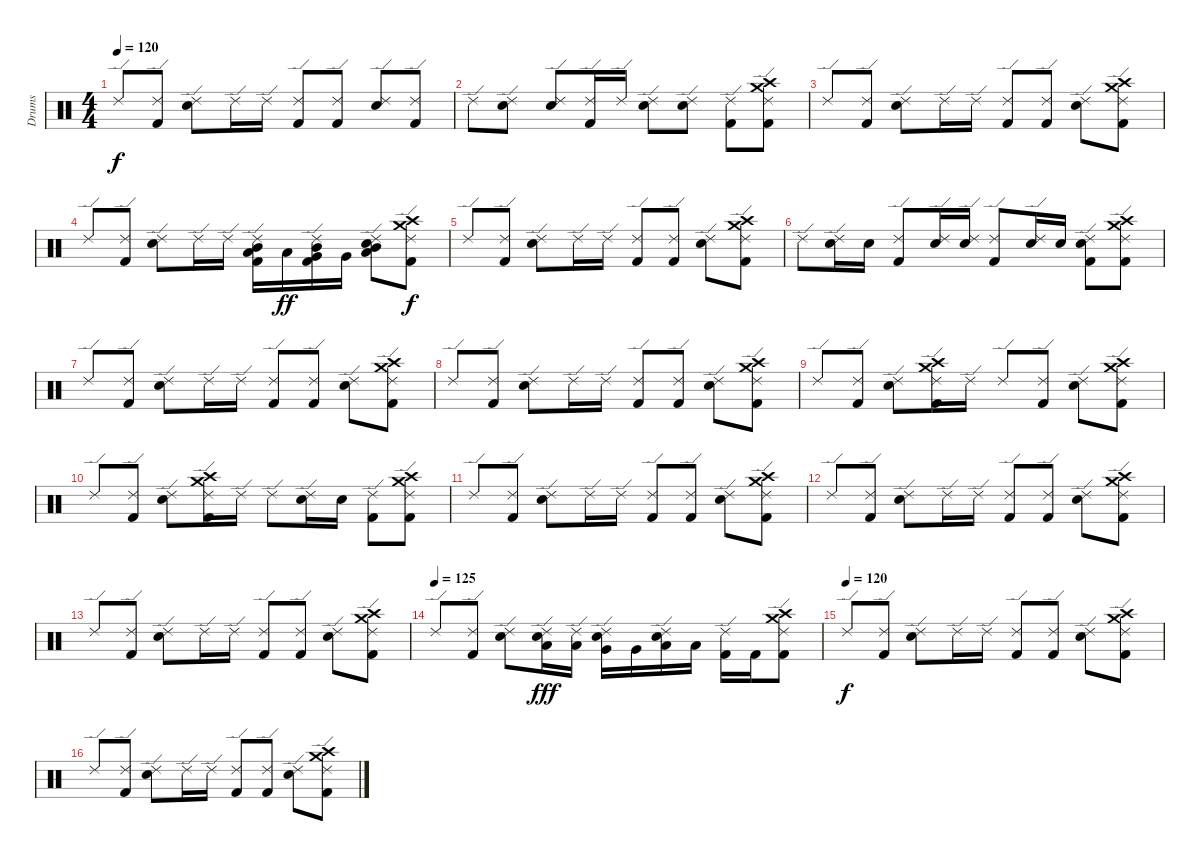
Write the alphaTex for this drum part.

\track ("Drums" "Drums") {instrument percussion}
\staff {score}
\articulation defaults
\ts (4 4)
\tempo 120
\clef neutral
\ks c "Ride (edge) 2".8{dy f}
("Kick (hit) 2" "Ride (edge) 2").8 ("Ride (edge) 2" "Snare (hit) 2").8 "Ride (edge) 2".16 "Ride (edge) 2".16 ("Ride (edge) 2" "Kick (hit) 2").8 ("Ride (edge) 2" "Kick (hit) 2").8 ("Ride (edge) 2" "Snare (hit) 2").8 ("Kick (hit) 2" "Ride (edge) 2").8 |
"Ride (edge) 2".8 ("Ride (edge) 2" "Snare (hit) 2").8 ("Ride (edge) 2" "Snare (hit) 2").8 ("Ride (edge) 2" "Kick (hit) 2").16 "Ride (edge) 2".16 ("Ride (edge) 2" "Snare (hit) 2").8 ("Ride (edge) 2" "Snare (hit) 2").8 ("Ride (edge) 2" "Kick (hit) 2").8 ("Kick (hit) 2" "Crash medium (hit)" "Crash high (hit)" "Ride (edge) 2").8 |
"Ride (edge) 2".8 ("Ride (edge) 2" "Kick (hit) 2").8 ("Ride (edge) 2" "Snare (hit) 2").8 "Ride (edge) 2".16 "Ride (edge) 2".16 ("Ride (edge) 2" "Kick (hit) 2").8 ("Ride (edge) 2" "Kick (hit) 2").8 ("Ride (edge) 2" "Snare (hit) 2").8 ("Ride (edge) 2" "Kick (hit) 2" "Crash medium (hit)" "Crash high (hit)").8 |
"Ride (edge) 2".8 ("Ride (edge) 2" "Kick (hit) 2").8 ("Ride (edge) 2" "Snare (hit) 2").8 "Ride (edge) 2".16 "Ride (edge) 2".16 ("Low Tom (hit)" "Ride (edge) 2" "Kick (hit) 2" "Mid Tom (hit)").16 "Low Tom (hit)".16{dy ff} ("Mid Tom (hit)" "Very Low Tom (hit)" "Ride (edge) 2" "Kick (hit) 2").16 "Very Low Tom (hit)".16 ("Mid Tom (hit)" "Low Floor Tom (hit)" "Ride (edge) 2" "Snare (hit) 2").8 ("Ride (edge) 2" "Kick (hit) 2" "Crash high (hit)" "Crash medium (hit)").8{dy f} |
"Ride (edge) 2".8 ("Ride (edge) 2" "Kick (hit) 2").8 ("Ride (edge) 2" "Snare (hit) 2").8 "Ride (edge) 2".16 "Ride (edge) 2".16 ("Ride (edge) 2" "Kick (hit) 2").8 ("Ride (edge) 2" "Kick (hit) 2").8 ("Ride (edge) 2" "Snare (hit) 2").8 ("Crash medium (hit)" "Crash high (hit)" "Ride (edge) 2" "Kick (hit) 2").8 |
"Ride (edge) 2".8 ("Ride (edge) 2" "Snare (hit) 2").16 "Snare (hit) 2".16 ("Ride (edge) 2" "Kick (hit) 2").8 ("Ride (edge) 2" "Snare (hit) 2").16 ("Ride (edge) 2" "Snare (hit) 2").16 ("Ride (edge) 2" "Kick (hit) 2").8 ("Ride (edge) 2" "Snare (hit) 2").16 "Snare (hit) 2".16 ("Ride (edge) 2" "Kick (hit) 2" "Snare (hit) 2").8 ("Kick (hit) 2" "Crash high (hit)" "Crash medium (hit)" "Ride (edge) 2").8 |
"Ride (edge) 2".8 ("Kick (hit) 2" "Ride (edge) 2").8 ("Snare (hit) 2" "Ride (edge) 2").8 "Ride (edge) 2".16 "Ride (edge) 2".16 ("Kick (hit) 2" "Ride (edge) 2").8 ("Kick (hit) 2" "Ride (edge) 2").8 ("Snare (hit) 2" "Ride (edge) 2").8 ("Kick (hit) 2" "Ride (edge) 2" "Crash medium (hit)" "Crash high (hit)").8 |
"Ride (edge) 2".8 ("Kick (hit) 2" "Ride (edge) 2").8 ("Snare (hit) 2" "Ride (edge) 2").8 "Ride (edge) 2".16 "Ride (edge) 2".16 ("Kick (hit) 2" "Ride (edge) 2").8 ("Kick (hit) 2" "Ride (edge) 2").8 ("Snare (hit) 2" "Ride (edge) 2").8 ("Crash medium (hit)" "Crash high (hit)" "Kick (hit) 2" "Ride (edge) 2").8 |
"Ride (edge) 2".8 ("Kick (hit) 2" "Ride (edge) 2").8 ("Snare (hit) 2" "Ride (edge) 2").8 ("Crash medium (hit)" "Crash high (hit)" "Ride (edge) 2" "Kick (hit) 2").16 "Ride (edge) 2".16 "Ride (edge) 2".8 ("Kick (hit) 2" "Ride (edge) 2").8 ("Snare (hit) 2" "Ride (edge) 2").8 ("Kick (hit) 2" "Ride (edge) 2" "Crash medium (hit)" "Crash high (hit)").8 |
"Ride (edge) 2".8 ("Kick (hit) 2" "Ride (edge) 2").8 ("Snare (hit) 2" "Ride (edge) 2").8 ("Crash medium (hit)" "Crash high (hit)" "Ride (edge) 2" "Kick (hit) 2").16 "Ride (edge) 2".16 "Ride (edge) 2".8 ("Snare (hit) 2" "Ride (edge) 2").16 "Snare (hit) 2".16 ("Kick (hit) 2" "Ride (edge) 2").8 ("Kick (hit) 2" "Ride (edge) 2" "Crash high (hit)" "Crash medium (hit)").8 |
"Ride (edge) 2".8 ("Kick (hit) 2" "Ride (edge) 2").8 ("Snare (hit) 2" "Ride (edge) 2").8 "Ride (edge) 2".16 "Ride (edge) 2".16 ("Kick (hit) 2" "Ride (edge) 2").8 ("Kick (hit) 2" "Ride (edge) 2").8 ("Snare (hit) 2" "Ride (edge) 2").8 ("Ride (edge) 2" "Crash medium (hit)" "Crash high (hit)" "Kick (hit) 2").8 |
"Ride (edge) 2".8 ("Kick (hit) 2" "Ride (edge) 2").8 ("Snare (hit) 2" "Ride (edge) 2").8 "Ride (edge) 2".16 "Ride (edge) 2".16 ("Ride (edge) 2" "Kick (hit) 2").8 ("Kick (hit) 2" "Ride (edge) 2").8 ("Snare (hit) 2" "Ride (edge) 2").8 ("Kick (hit) 2" "Ride (edge) 2" "Crash high (hit)" "Crash medium (hit)").8 |
"Ride (edge) 2".8 ("Ride (edge) 2" "Kick (hit) 2").8 ("Ride (edge) 2" "Snare (hit) 2").8 "Ride (edge) 2".16 "Ride (edge) 2".16 ("Ride (edge) 2" "Kick (hit) 2").8 ("Ride (edge) 2" "Kick (hit) 2").8 ("Ride (edge) 2" "Snare (hit) 2").8 ("Crash high (hit)" "Ride (edge) 2" "Kick (hit) 2" "Crash medium (hit)").8 |
\tempo (125)
"Ride (edge) 2".8 ("Ride (edge) 2" "Kick (hit) 2").8 ("Ride (edge) 2" "Snare (hit) 2").8 ("Snare (hit) 2" "Ride (edge) 2" "Low Tom (hit)").16{dy fff} ("Ride (edge) 2" "Low Tom (hit)").16 ("Snare (hit) 2" "Ride (edge) 2" "Very Low Tom (hit)").16 "Very Low Tom (hit)".16 ("Snare (hit) 2" "Ride (edge) 2" "Low Floor Tom (hit)").16 "Low Floor Tom (hit)".16 ("Ride (edge) 2" "Kick (hit) 2").16 "Kick (hit) 2".16 ("Crash medium (hit)" "Crash high (hit)" "Kick (hit) 2" "Ride (edge) 2").8 |
\tempo (120)
"Ride (edge) 2".8{dy f} ("Ride (edge) 2" "Kick (hit) 2").8 ("Ride (edge) 2" "Snare (hit) 2").8 "Ride (edge) 2".16 "Ride (edge) 2".16 ("Ride (edge) 2" "Kick (hit) 2").8 ("Ride (edge) 2" "Kick (hit) 2").8 ("Ride (edge) 2" "Snare (hit) 2").8 ("Ride (edge) 2" "Crash medium (hit)" "Crash high (hit)" "Kick (hit) 2").8 |
"Ride (edge) 2".8 ("Ride (edge) 2" "Kick (hit) 2").8 ("Ride (edge) 2" "Snare (hit) 2").8 "Ride (edge) 2".16 "Ride (edge) 2".16 ("Ride (edge) 2" "Kick (hit) 2").8 ("Ride (edge) 2" "Kick (hit) 2").8 ("Ride (edge) 2" "Snare (hit) 2").8 ("Kick (hit) 2" "Crash medium (hit)" "Crash high (hit)" "Ride (edge) 2").8
